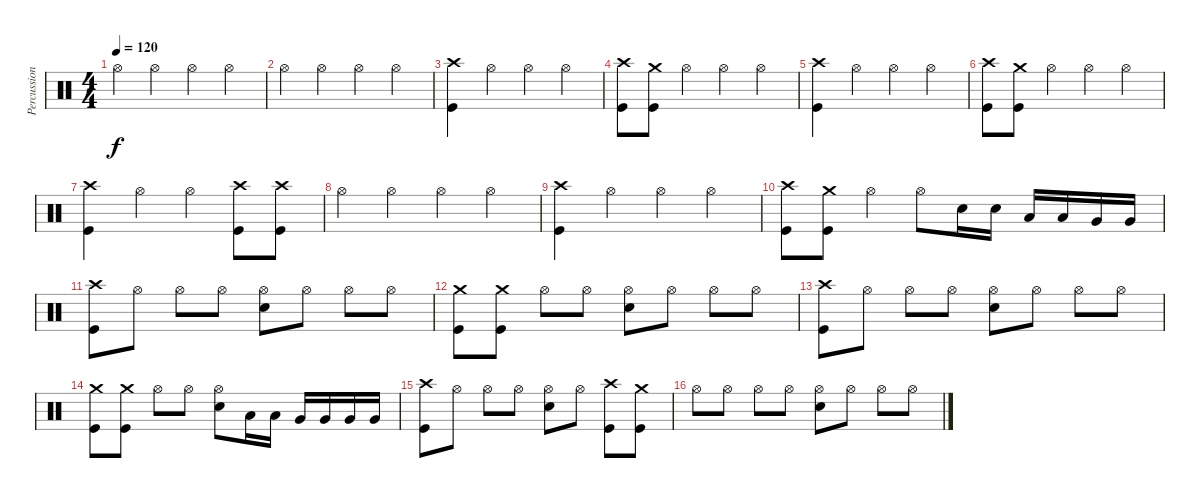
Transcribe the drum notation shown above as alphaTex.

\track ("Percussion" "Percussion") {instrument percussion}
\staff {score}
\articulation defaults
\ts (4 4)
\tempo 120
\clef neutral
\ks c "Hi-Hat (open)".4{dy f} "Hi-Hat (open)".4 "Hi-Hat (open)".4 "Hi-Hat (open)".4
|
"Hi-Hat (open)".4 "Hi-Hat (open)".4 "Hi-Hat (open)".4 "Hi-Hat (open)".4 |
("Crash high (hit)" "Kick (hit)").4 "Hi-Hat (open)".4 "Hi-Hat (open)".4 "Hi-Hat (open)".4 |
("Crash high (hit)" "Kick (hit)").8 ("Crash medium (hit)" "Kick (hit)").8 "Hi-Hat (open)".4 "Hi-Hat (open)".4 "Hi-Hat (open)".4 |
("Crash high (hit)" "Kick (hit)").4 "Hi-Hat (open)".4 "Hi-Hat (open)".4 "Hi-Hat (open)".4 |
("Crash high (hit)" "Kick (hit)").8 ("Crash medium (hit)" "Kick (hit)").8 "Hi-Hat (open)".4 "Hi-Hat (open)".4 "Hi-Hat (open)".4 |
("Crash high (hit)" "Kick (hit)").4 "Hi-Hat (open)".4 "Hi-Hat (open)".4 ("Crash high (hit)" "Kick (hit)").8 ("Crash high (hit)" "Kick (hit)").8 |
"Hi-Hat (open)".4 "Hi-Hat (open)".4 "Hi-Hat (open)".4 "Hi-Hat (open)".4 |
("Crash high (hit)" "Kick (hit)").4 "Hi-Hat (open)".4 "Hi-Hat (open)".4 "Hi-Hat (open)".4 |
("Crash high (hit)" "Kick (hit)").8 ("Crash medium (hit)" "Kick (hit)").8 "Hi-Hat (open)".4 "Hi-Hat (open)".8 "Snare (hit) 2".16 "Snare (hit) 2".16 "Low Floor Tom (hit)".16 "Low Floor Tom (hit)".16 "Very Low Tom (hit)".16 "Very Low Tom (hit)".16 |
("Kick (hit)" "Crash high (hit)").8 "Hi-Hat (open)".8 "Hi-Hat (open)".8 "Hi-Hat (open)".8 ("Hi-Hat (open)" "Snare (hit) 2").8 "Hi-Hat (open)".8 "Hi-Hat (open)".8 "Hi-Hat (open)".8 |
("Kick (hit)" "Crash medium (hit)").8 ("Kick (hit)" "Crash medium (hit)").8 "Hi-Hat (open)".8 "Hi-Hat (open)".8 ("Hi-Hat (open)" "Snare (hit) 2").8 "Hi-Hat (open)".8 "Hi-Hat (open)".8 "Hi-Hat (open)".8 |
("Kick (hit)" "Crash high (hit)").8 "Hi-Hat (open)".8 "Hi-Hat (open)".8 "Hi-Hat (open)".8 ("Hi-Hat (open)" "Snare (hit) 2").8 "Hi-Hat (open)".8 "Hi-Hat (open)".8 "Hi-Hat (open)".8 |
("Kick (hit)" "Crash medium (hit)").8 ("Kick (hit)" "Crash medium (hit)").8 "Hi-Hat (open)".8 "Hi-Hat (open)".8 ("Hi-Hat (open)" "Snare (hit) 2").8 "Low Floor Tom (hit)".16 "Low Floor Tom (hit)".16 "Very Low Tom (hit)".16 "Very Low Tom (hit)".16 "Very Low Tom (hit)".16 "Very Low Tom (hit)".16 |
("Kick (hit)" "Crash high (hit)").8 "Hi-Hat (open)".8 "Hi-Hat (open)".8 "Hi-Hat (open)".8 ("Hi-Hat (open)" "Snare (hit) 2").8 "Hi-Hat (open)".8 ("Kick (hit)" "Crash high (hit)").8 ("Kick (hit)" "Crash medium (hit)").8 |
"Hi-Hat (open)".8 "Hi-Hat (open)".8 "Hi-Hat (open)".8 "Hi-Hat (open)".8 ("Hi-Hat (open)" "Snare (hit) 2").8 "Hi-Hat (open)".8 "Hi-Hat (open)".8 "Hi-Hat (open)".8
